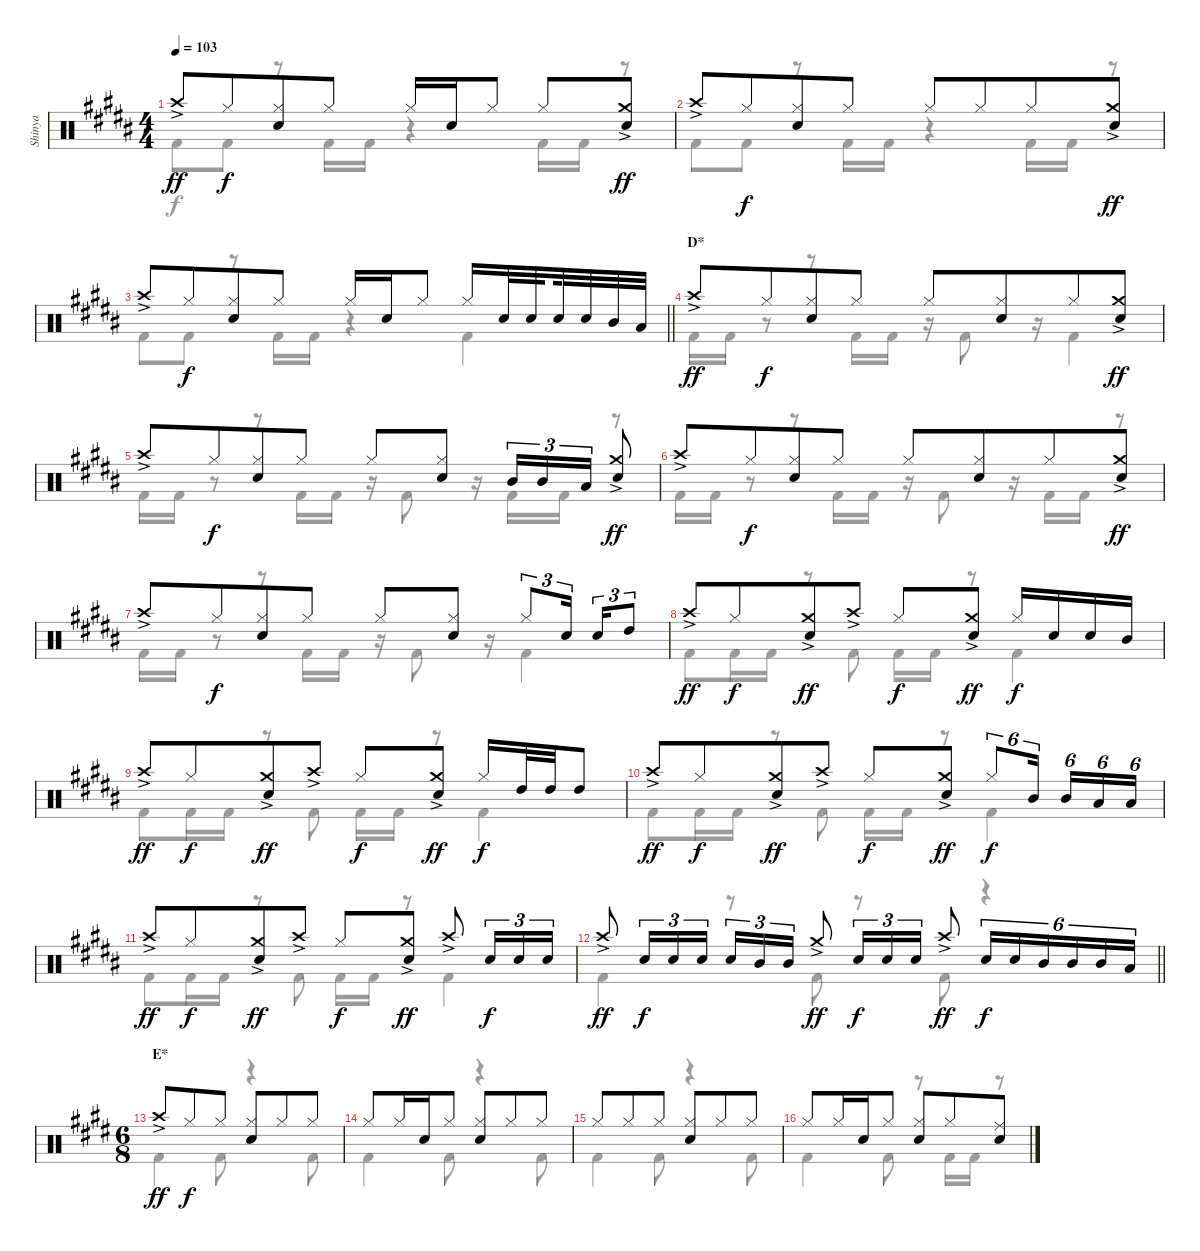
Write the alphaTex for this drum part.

\track ("Shinya" "Shinya") {instrument percussion}
\staff {score}
\articulation defaults
\voice
\ts (4 4)
\tempo 103
\clef neutral
\ks g#minor "Crash high (hit)"{ac}.8{dy ff} "Hi-Hat (closed)".8{dy f beam merge}
("Hi-Hat (closed)" "Snare (hit) 2").8 "Hi-Hat (closed)".8 "Hi-Hat (closed)".16 "Snare (hit) 2".16 "Hi-Hat (closed)".8 "Hi-Hat (closed)".8 ("Crash medium (hit)"{ac} "Snare (hit) 2").8{dy ff} |
"Crash high (hit)"{ac}.8 "Hi-Hat (closed)".8{dy f beam merge} ("Hi-Hat (closed)" "Snare (hit) 2").8 "Hi-Hat (closed)".8 "Hi-Hat (closed)".8 "Hi-Hat (closed)".8{beam merge} "Hi-Hat (closed)".8 ("Crash medium (hit)"{ac} "Snare (hit) 2").8{dy ff} |
\barLineRight lightlight "Crash high (hit)"{ac}.8 "Hi-Hat (closed)".8{dy f beam merge}
("Hi-Hat (closed)" "Snare (hit) 2").8 "Hi-Hat (closed)".8 "Hi-Hat (closed)".16 "Snare (hit) 2".16 "Hi-Hat (closed)".8 "Hi-Hat (closed)".16 "Snare (hit) 2".32 "Snare (hit) 2".32{beam splitsecondary} "Snare (hit) 2".32 "Snare (hit) 2".32 "Mid Tom (hit)".32 "Low Tom (hit)".32 |
\section ("" "D*")
"Crash high (hit)"{ac}.8{dy ff} "Hi-Hat (closed)".8{dy f beam merge} ("Hi-Hat (closed)" "Snare (hit) 2").8 "Hi-Hat (closed)".8 "Hi-Hat (closed)".8 ("Hi-Hat (closed)" "Snare (hit) 2").8{beam merge} "Hi-Hat (closed)".8 ("Crash medium (hit)"{ac} "Snare (hit) 2").8{dy ff} |
"Crash high (hit)"{ac}.8 "Hi-Hat (closed)".8{dy f beam merge} ("Hi-Hat (closed)" "Snare (hit) 2").8 "Hi-Hat (closed)".8 "Hi-Hat (closed)".8 ("Hi-Hat (closed)" "Snare (hit) 2").8 "Mid Tom (hit)".16{tu (3 2)} "Mid Tom (hit)".16{tu (3 2)} "Low Tom (hit)".16{tu (3 2)} ("Crash medium (hit)"{ac} "Snare (hit) 2").8{dy ff} |
"Crash high (hit)"{ac}.8 "Hi-Hat (closed)".8{dy f beam merge} ("Hi-Hat (closed)" "Snare (hit) 2").8 "Hi-Hat (closed)".8 "Hi-Hat (closed)".8 ("Hi-Hat (closed)" "Snare (hit) 2").8{beam merge} "Hi-Hat (closed)".8 ("Crash medium (hit)"{ac} "Snare (hit) 2").8{dy ff} |
"Crash high (hit)"{ac}.8 "Hi-Hat (closed)".8{dy f beam merge} ("Hi-Hat (closed)" "Snare (hit) 2").8 "Hi-Hat (closed)".8 "Hi-Hat (closed)".8 ("Hi-Hat (closed)" "Snare (hit) 2").8 "Hi-Hat (closed)".8{tu (3 2)} "Snare (hit) 2".16{tu (3 2)} "Snare (hit) 2".16{tu (3 2)} "High Tom (hit)".8{tu (3 2)} |
"Crash high (hit)"{ac}.8{dy ff} "Hi-Hat (closed)".8{dy f beam merge} ("Crash medium (hit)"{ac} "Snare (hit) 2").8{dy ff} "Crash high (hit)"{ac}.8 "Hi-Hat (closed)".8{dy f} ("Crash medium (hit)"{ac} "Snare (hit) 2").8{dy ff} "Hi-Hat (closed)".16{dy f} "Snare (hit) 2".16 "Snare (hit) 2".16 "Mid Tom (hit)".16 |
"Crash high (hit)"{ac}.8{dy ff} "Hi-Hat (closed)".8{dy f beam merge} ("Crash medium (hit)"{ac} "Snare (hit) 2").8{dy ff} "Crash high (hit)"{ac}.8 "Hi-Hat (closed)".8{dy f} ("Crash medium (hit)"{ac} "Snare (hit) 2").8{dy ff} "Hi-Hat (closed)".16{dy f} "High Tom (hit)".32 "High Tom (hit)".32 "High Tom (hit)".8 |
"Crash high (hit)"{ac}.8{dy ff} "Hi-Hat (closed)".8{dy f beam merge} ("Crash medium (hit)"{ac} "Snare (hit) 2").8{dy ff} "Crash high (hit)"{ac}.8 "Hi-Hat (closed)".8{dy f} ("Crash medium (hit)"{ac} "Snare (hit) 2").8{dy ff} "Hi-Hat (closed)".8{tu (6 4) dy f} "Mid Tom (hit)".16{tu (6 4) beam splitsecondary} "Mid Tom (hit)".16{tu (6 4)} "Low Tom (hit)".16{tu (6 4)} "Low Tom (hit)".16{tu (6 4)} |
"Crash high (hit)"{ac}.8{dy ff} "Hi-Hat (closed)".8{dy f beam merge} ("Crash medium (hit)"{ac} "Snare (hit) 2").8{dy ff} "Crash high (hit)"{ac}.8 "Hi-Hat (closed)".8{dy f} ("Crash medium (hit)"{ac} "Snare (hit) 2").8{dy ff} "Crash high (hit)"{ac}.8 "Snare (hit) 2".16{tu (3 2) dy f} "Snare (hit) 2".16{tu (3 2)} "Snare (hit) 2".16{tu (3 2)} |
\barLineRight lightlight "Crash high (hit)"{ac}.8{dy ff} "Snare (hit) 2".16{tu (3 2) dy f} "Snare (hit) 2".16{tu (3 2)} "Snare (hit) 2".16{tu (3 2)} "Snare (hit) 2".16{tu (3 2)} "Mid Tom (hit)".16{tu (3 2)} "Mid Tom (hit)".16{tu (3 2)} "Crash medium (hit)"{ac}.8{dy ff} "Snare (hit) 2".16{tu (3 2) dy f} "Snare (hit) 2".16{tu (3 2)} "Snare (hit) 2".16{tu (3 2)} "Crash high (hit)"{ac}.8{dy ff} "Snare (hit) 2".16{tu (6 4) dy f} "Snare (hit) 2".16{tu (6 4)} "Mid Tom (hit)".16{tu (6 4)} "Mid Tom (hit)".16{tu (6 4)} "Mid Tom (hit)".16{tu (6 4)} "Low Tom (hit)".16{tu (6 4)}
|
\ts (6 8)
\section ("" "E*")
\ks c#minor "Crash high (hit)"{ac}.8{dy ff} "Hi-Hat (closed)".8{dy f} "Hi-Hat (closed)".8
("Hi-Hat (closed)" "Snare (hit) 2").8 "Hi-Hat (closed)".8 "Hi-Hat (closed)".8 |
"Hi-Hat (closed)".8 "Hi-Hat (closed)".16 "Snare (hit) 2".16 "Hi-Hat (closed)".8 ("Hi-Hat (closed)" "Snare (hit) 2").8 "Hi-Hat (closed)".8 "Hi-Hat (closed)".8 |
"Hi-Hat (closed)".8 "Hi-Hat (closed)".8 "Hi-Hat (closed)".8 ("Hi-Hat (closed)" "Snare (hit) 2").8 "Hi-Hat (closed)".8 "Hi-Hat (closed)".8 |
"Hi-Hat (closed)".8 "Hi-Hat (closed)".16 "Snare (hit) 2".16 "Hi-Hat (closed)".8 ("Hi-Hat (closed)" "Snare (hit) 2").8 "Hi-Hat (closed)".8 ("Ride (middle)" "Snare (hit) 2").8
\voice
\clef neutral
\ottava regular
\simile none
\ks g#minor "Kick (hit) 2".8{dy f} "Kick (hit) 2".8
r.8 "Kick (hit) 2".16 "Kick (hit) 2".16 r.4 "Kick (hit) 2".16 "Kick (hit) 2".16 r.8 |
"Kick (hit) 2".8 "Kick (hit) 2".8 r.8 "Kick (hit) 2".16 "Kick (hit) 2".16 r.4 "Kick (hit) 2".16 "Kick (hit) 2".16 r.8 |
\barLineRight lightlight "Kick (hit) 2".8 "Kick (hit) 2".8
r.8 "Kick (hit) 2".16 "Kick (hit) 2".16 r.4 "Kick (hit) 2".4 |
"Kick (hit) 2".16 "Kick (hit) 2".16 r.8 r.8 "Kick (hit) 2".16 "Kick (hit) 2".16 r.16 "Kick (hit) 2".8 r.16 "Kick (hit) 2".4 |
"Kick (hit) 2".16 "Kick (hit) 2".16 r.8 r.8 "Kick (hit) 2".16 "Kick (hit) 2".16 r.16 "Kick (hit) 2".8 r.16 "Kick (hit) 2".16 "Kick (hit) 2".16 r.8 |
"Kick (hit) 2".16 "Kick (hit) 2".16 r.8 r.8 "Kick (hit) 2".16 "Kick (hit) 2".16 r.16 "Kick (hit) 2".8 r.16 "Kick (hit) 2".16 "Kick (hit) 2".16 r.8 |
"Kick (hit) 2".16 "Kick (hit) 2".16 r.8 r.8 "Kick (hit) 2".16 "Kick (hit) 2".16 r.16 "Kick (hit) 2".8 r.16 "Kick (hit) 2".4 |
"Kick (hit) 2".8 "Kick (hit) 2".16 "Kick (hit) 2".16 r.8 "Kick (hit) 2".8 "Kick (hit) 2".16 "Kick (hit) 2".16 r.8 "Kick (hit) 2".4 |
"Kick (hit) 2".8 "Kick (hit) 2".16 "Kick (hit) 2".16 r.8 "Kick (hit) 2".8 "Kick (hit) 2".16 "Kick (hit) 2".16 r.8 "Kick (hit) 2".4 |
"Kick (hit) 2".8 "Kick (hit) 2".16 "Kick (hit) 2".16 r.8 "Kick (hit) 2".8 "Kick (hit) 2".16 "Kick (hit) 2".16 r.8 "Kick (hit) 2".4 |
"Kick (hit) 2".8 "Kick (hit) 2".16 "Kick (hit) 2".16 r.8 "Kick (hit) 2".8 "Kick (hit) 2".16 "Kick (hit) 2".16 r.8 "Kick (hit) 2".4 |
\barLineRight lightlight "Kick (hit) 2".4
r.8 "Kick (hit) 2".8 r.8 "Kick (hit) 2".8 r.4 |
\ks c#minor "Kick (hit) 2".4 "Kick (hit) 2".8
r.4 "Kick (hit) 2".8 |
"Kick (hit) 2".4 "Kick (hit) 2".8 r.4 "Kick (hit) 2".8 |
"Kick (hit) 2".4 "Kick (hit) 2".8 r.4 "Kick (hit) 2".8 |
"Kick (hit) 2".4 "Kick (hit) 2".8 r.8 "Kick (hit) 2".16 "Kick (hit) 2".16 r.8
